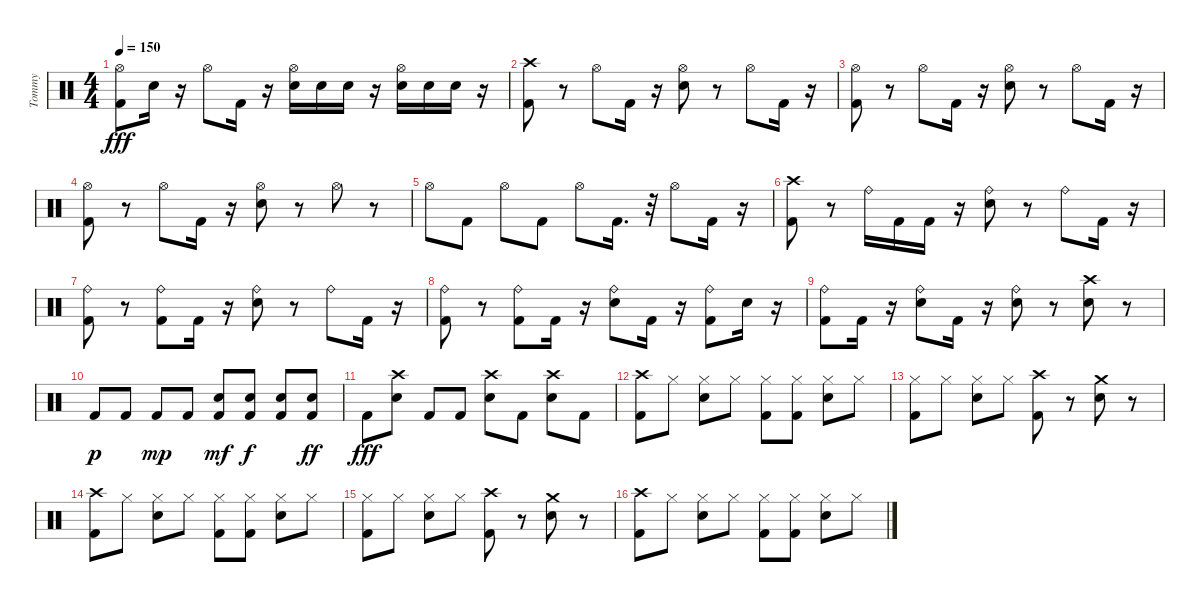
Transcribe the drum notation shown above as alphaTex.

\track ("Tommy" "Tommy") {instrument percussion}
\staff {score}
\articulation defaults
\ts (4 4)
\tempo 150
\clef neutral
\ks c
("Hi-Hat (open)" "Kick (hit) 2").8{dy fff} "Snare (hit) 2".16 r.16 "Hi-Hat (open)".8 "Kick (hit) 2".16 r.16 ("Hi-Hat (open)" "Snare (hit) 2").16 "Snare (hit) 2".16 "Snare (hit) 2".16 r.16 ("Hi-Hat (open)" "Snare (hit) 2").16 "Snare (hit) 2".16 "Snare (hit) 2".16 r.16 |
("Crash high (hit)" "Kick (hit) 2").8 r.8 "Hi-Hat (open)".8 "Kick (hit) 2".16 r.16 ("Snare (hit) 2" "Hi-Hat (open)").8 r.8 "Hi-Hat (open)".8 "Kick (hit) 2".16 r.16 |
("Kick (hit) 2" "Hi-Hat (open)").8 r.8 "Hi-Hat (open)".8 "Kick (hit) 2".16 r.16 ("Snare (hit) 2" "Hi-Hat (open)").8 r.8 "Hi-Hat (open)".8 "Kick (hit) 2".16 r.16 |
("Kick (hit) 2" "Hi-Hat (open)").8 r.8 "Hi-Hat (open)".8 "Kick (hit) 2".16 r.16 ("Snare (hit) 2" "Hi-Hat (open)").8 r.8 "Hi-Hat (open)".8 r.8 |
"Hi-Hat (open)".8 "Kick (hit) 2".8 "Hi-Hat (open)".8 "Kick (hit) 2".8 "Hi-Hat (open)".8 "Kick (hit) 2".16{d} r.32 "Hi-Hat (open)".8 "Kick (hit) 2".16 r.16 |
("Kick (hit) 2" "Crash high (hit)").8 r.8 "Ride (bell)".16 "Kick (hit) 2".16 "Kick (hit) 2".16 r.16 ("Snare (hit) 2" "Ride (bell)").8 r.8 "Ride (bell)".8 "Kick (hit) 2".16 r.16 |
("Kick (hit) 2" "Ride (bell)").8 r.8 ("Ride (bell)" "Kick (hit) 2").8 "Kick (hit) 2".16 r.16 ("Snare (hit) 2" "Ride (bell)").8 r.8 "Ride (bell)".8 "Kick (hit) 2".16 r.16 |
("Kick (hit) 2" "Ride (bell)").8 r.8 ("Ride (bell)" "Kick (hit) 2").8 "Kick (hit) 2".16 r.16 ("Snare (hit) 2" "Ride (bell)").8 "Kick (hit) 2".16 r.16 ("Ride (bell)" "Kick (hit) 2").8 "Snare (hit) 2".16 r.16 |
("Ride (bell)" "Kick (hit) 2").8 "Kick (hit) 2".16 r.16 ("Ride (bell)" "Snare (hit) 2").8 "Kick (hit) 2".16 r.16 ("Ride (bell)" "Snare (hit) 2").8 r.8 ("Snare (hit) 2" "Crash high (hit)").8 r.8 |
"Kick (hit) 2".8{dy p} "Kick (hit) 2".8 "Kick (hit) 2".8{dy mp} "Kick (hit) 2".8 ("Kick (hit) 2" "Snare (hit) 2").8{dy mf} ("Kick (hit) 2" "Snare (hit) 2").8{dy f} ("Kick (hit) 2" "Snare (hit) 2").8 ("Kick (hit) 2" "Snare (hit) 2").8{dy ff} |
"Kick (hit) 2".8{dy fff} ("Snare (hit) 2" "Crash high (hit)").8 "Kick (hit) 2".8 "Kick (hit) 2".8 ("Snare (hit) 2" "Crash high (hit)").8 "Kick (hit) 2".8 ("Snare (hit) 2" "Crash high (hit)").8 "Kick (hit) 2".8 |
("Crash high (hit)" "Kick (hit) 2").8 "Hi-Hat (closed)".8 ("Hi-Hat (closed)" "Snare (hit) 2").8 "Hi-Hat (closed)".8 ("Hi-Hat (closed)" "Kick (hit) 2").8 ("Hi-Hat (closed)" "Kick (hit) 2").8 ("Hi-Hat (closed)" "Snare (hit) 2").8 "Hi-Hat (closed)".8 |
("Hi-Hat (closed)" "Kick (hit) 2").8 "Hi-Hat (closed)".8 ("Hi-Hat (closed)" "Snare (hit) 2").8 "Hi-Hat (closed)".8 ("Crash high (hit)" "Kick (hit) 2").8 r.8 ("Snare (hit) 2" "Crash medium (hit)").8 r.8 |
("Kick (hit) 2" "Crash high (hit)").8 "Hi-Hat (closed)".8 ("Hi-Hat (closed)" "Snare (hit) 2").8 "Hi-Hat (closed)".8 ("Hi-Hat (closed)" "Kick (hit) 2").8 ("Hi-Hat (closed)" "Kick (hit) 2").8 ("Hi-Hat (closed)" "Snare (hit) 2").8 "Hi-Hat (closed)".8 |
("Hi-Hat (closed)" "Kick (hit) 2").8 "Hi-Hat (closed)".8 ("Hi-Hat (closed)" "Snare (hit) 2").8 "Hi-Hat (closed)".8 ("Crash high (hit)" "Kick (hit) 2").8 r.8 ("Snare (hit) 2" "Crash medium (hit)").8 r.8 |
("Kick (hit) 2" "Crash high (hit)").8 "Hi-Hat (closed)".8 ("Hi-Hat (closed)" "Snare (hit) 2").8 "Hi-Hat (closed)".8 ("Hi-Hat (closed)" "Kick (hit) 2").8 ("Hi-Hat (closed)" "Kick (hit) 2").8 ("Hi-Hat (closed)" "Snare (hit) 2").8 "Hi-Hat (closed)".8
